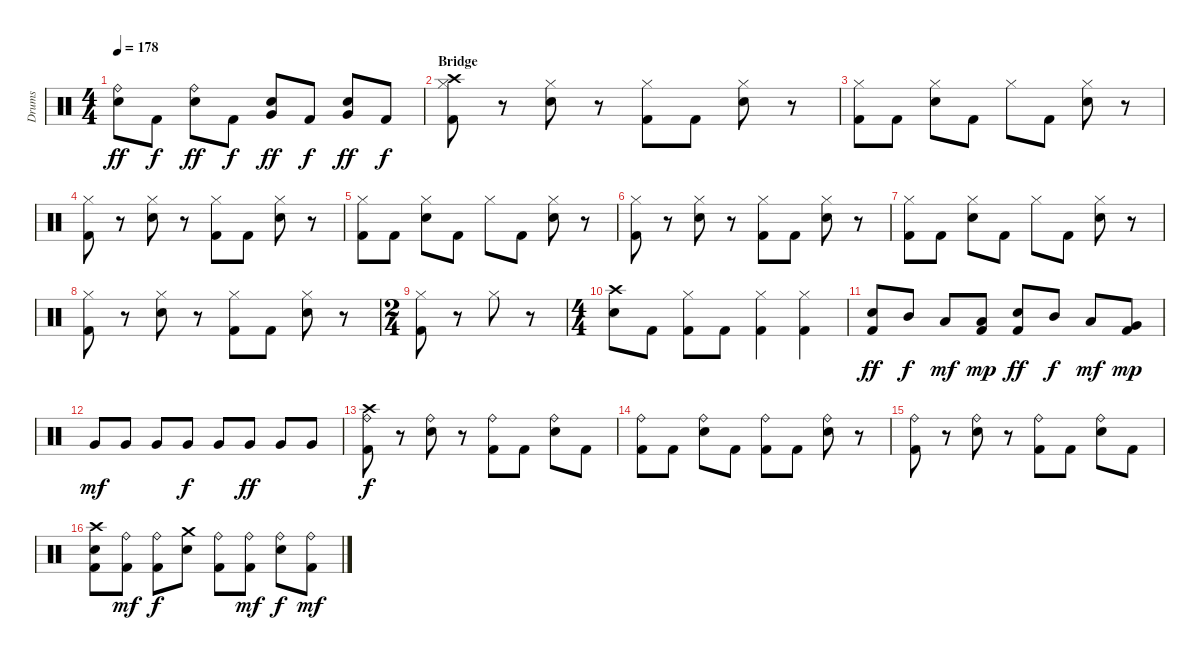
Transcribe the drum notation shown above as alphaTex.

\track ("Drums" "Drums") {instrument percussion}
\staff {score}
\articulation defaults
\ts (4 4)
\tempo 178
\clef neutral
\ks c
("Ride (bell)" "Electric Snare (hit)").8{dy ff} "Kick (hit) 2".8{dy f} ("Ride (bell)" "Electric Snare (hit)").8{dy ff} "Kick (hit) 2".8{dy f} ("Very Low Tom (hit)" "Electric Snare (hit)").8{dy ff} "Kick (hit) 2".8{dy f} ("Very Low Tom (hit)" "Electric Snare (hit)").8{dy ff} "Kick (hit) 2".8{dy f} |
\section ("" "Bridge")
("Crash high (hit)" "Hi-Hat (closed)" "Kick (hit) 2").8 r.8 ("Hi-Hat (closed)" "Electric Snare (hit)").8 r.8 ("Hi-Hat (closed)" "Kick (hit) 2").8 "Kick (hit) 2".8 ("Hi-Hat (closed)" "Electric Snare (hit)").8 r.8 |
("Hi-Hat (closed)" "Kick (hit) 2").8 "Kick (hit) 2".8 ("Hi-Hat (closed)" "Electric Snare (hit)").8 "Kick (hit) 2".8 "Hi-Hat (closed)".8 "Kick (hit) 2".8 ("Hi-Hat (closed)" "Electric Snare (hit)").8 r.8 |
("Hi-Hat (closed)" "Kick (hit) 2").8 r.8 ("Hi-Hat (closed)" "Electric Snare (hit)").8 r.8 ("Hi-Hat (closed)" "Kick (hit) 2").8 "Kick (hit) 2".8 ("Hi-Hat (closed)" "Electric Snare (hit)").8 r.8 |
("Hi-Hat (closed)" "Kick (hit) 2").8 "Kick (hit) 2".8 ("Hi-Hat (closed)" "Electric Snare (hit)").8 "Kick (hit) 2".8 "Hi-Hat (closed)".8 "Kick (hit) 2".8 ("Hi-Hat (closed)" "Electric Snare (hit)").8 r.8 |
("Hi-Hat (closed)" "Kick (hit) 2").8 r.8 ("Hi-Hat (closed)" "Electric Snare (hit)").8 r.8 ("Hi-Hat (closed)" "Kick (hit) 2").8 "Kick (hit) 2".8 ("Hi-Hat (closed)" "Electric Snare (hit)").8 r.8 |
("Hi-Hat (closed)" "Kick (hit) 2").8 "Kick (hit) 2".8 ("Hi-Hat (closed)" "Electric Snare (hit)").8 "Kick (hit) 2".8 "Hi-Hat (closed)".8 "Kick (hit) 2".8 ("Hi-Hat (closed)" "Electric Snare (hit)").8 r.8 |
("Hi-Hat (closed)" "Kick (hit) 2").8 r.8 ("Hi-Hat (closed)" "Electric Snare (hit)").8 r.8 ("Hi-Hat (closed)" "Kick (hit) 2").8 "Kick (hit) 2".8 ("Hi-Hat (closed)" "Electric Snare (hit)").8 r.8 |
\ts (2 4)
("Hi-Hat (closed)" "Kick (hit) 2").8 r.8 "Hi-Hat (closed)".8 r.8 |
\ts (4 4)
("Crash high (hit)" "Electric Snare (hit)").8 "Kick (hit) 2".8 ("Hi-Hat (closed)" "Kick (hit) 2").8 "Kick (hit) 2".8 ("Hi-Hat (closed)" "Kick (hit) 2").4 ("Hi-Hat (closed)" "Kick (hit) 2").4 |
("Electric Snare (hit)" "Kick (hit) 2").8{dy ff} "Mid Tom (hit)".8{dy f} "Low Tom (hit)".8{dy mf} ("Low Tom (hit)" "Kick (hit) 2").8{dy mp} ("Electric Snare (hit)" "Kick (hit) 2").8{dy ff} "Mid Tom (hit)".8{dy f} "Low Tom (hit)".8{dy mf} ("Very Low Tom (hit)" "Kick (hit) 2").8{dy mp} |
"Very Low Tom (hit)".8{dy mf} "Very Low Tom (hit)".8 "Very Low Tom (hit)".8 "Very Low Tom (hit)".8{dy f} "Very Low Tom (hit)".8 "Very Low Tom (hit)".8{dy ff} "Very Low Tom (hit)".8 "Very Low Tom (hit)".8 |
("Crash high (hit)" "Ride (bell)" "Kick (hit) 2").8{dy f} r.8 ("Ride (bell)" "Electric Snare (hit)").8 r.8 ("Ride (bell)" "Kick (hit) 2").8 "Kick (hit) 2".8 ("Ride (bell)" "Electric Snare (hit)").8 "Kick (hit) 2".8 |
("Ride (bell)" "Kick (hit) 2").8 "Kick (hit) 2".8 ("Ride (bell)" "Electric Snare (hit)").8 "Kick (hit) 2".8 ("Ride (bell)" "Kick (hit) 2").8 "Kick (hit) 2".8 ("Ride (bell)" "Electric Snare (hit)").8 r.8 |
("Ride (bell)" "Kick (hit) 2").8 r.8 ("Ride (bell)" "Electric Snare (hit)").8 r.8 ("Ride (bell)" "Kick (hit) 2").8 "Kick (hit) 2".8 ("Ride (bell)" "Electric Snare (hit)").8 "Kick (hit) 2".8 |
("Crash high (hit)" "Electric Snare (hit)" "Kick (hit) 2").8 ("Ride (bell)" "Kick (hit) 2").8{dy mf} ("Ride (bell)" "Kick (hit) 2").8{dy f} ("Crash medium (hit)" "Electric Snare (hit)").8 ("Ride (bell)" "Kick (hit) 2").8 ("Ride (bell)" "Kick (hit) 2").8{dy mf} ("Ride (bell)" "Electric Snare (hit)").8{dy f} ("Ride (bell)" "Kick (hit) 2").8{dy mf}
